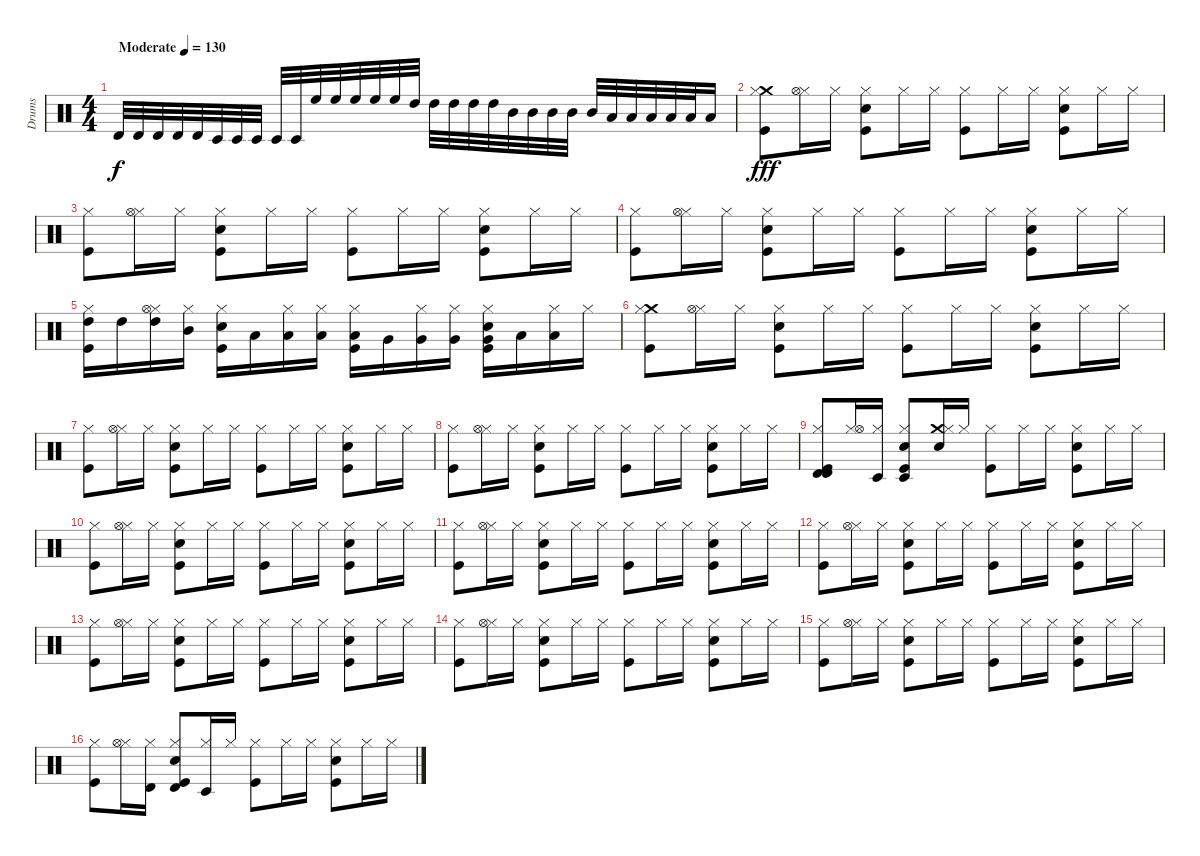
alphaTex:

\track ("Drums" "Drums") {instrument percussion}
\staff {score}
\articulation defaults
\ts (4 4)
\tempo (130 "Moderate")
\clef neutral
\ks c "Timbale high (hit)".32{dy f} "Timbale high (hit)".32 "Timbale high (hit)".32 "Timbale high (hit)".32 "Timbale high (hit)".32 "Timbale low (hit)".32 "Timbale low (hit)".32 "Timbale low (hit)".32 "Timbale low (hit)".32 "Timbale low (hit)".32 "High Floor Tom (hit)".32 "High Floor Tom (hit)".32 "High Floor Tom (hit)".32 "High Floor Tom (hit)".32 "High Floor Tom (hit)".32 "High Tom (hit)".32 "High Tom (hit)".32 "High Tom (hit)".32 "High Tom (hit)".32 "High Tom (hit)".32 "Mid Tom (hit)".32 "Mid Tom (hit)".32 "Mid Tom (hit)".32 "Mid Tom (hit)".32 "Mid Tom (hit)".32 "Low Tom (hit)".32 "Low Tom (hit)".32 "Low Tom (hit)".32 "Low Tom (hit)".32 "Low Tom (hit)".32 "Low Tom (hit)".16
|
("Crash medium (hit)" "Kick (hit)" "Hi-Hat (closed)").8{dy fff} ("Hi-Hat (closed)" "Hi-Hat (open)").16 "Hi-Hat (closed)".16 ("Kick (hit)" "Electric Snare (hit)" "Hi-Hat (closed)").8 "Hi-Hat (closed)".16 "Hi-Hat (closed)".16 ("Kick (hit)" "Hi-Hat (closed)").8 "Hi-Hat (closed)".16 "Hi-Hat (closed)".16 ("Kick (hit)" "Electric Snare (hit)" "Hi-Hat (closed)").8 "Hi-Hat (closed)".16 "Hi-Hat (closed)".16 |
("Kick (hit)" "Hi-Hat (closed)").8 ("Hi-Hat (closed)" "Hi-Hat (open)").16 "Hi-Hat (closed)".16 ("Kick (hit)" "Electric Snare (hit)" "Hi-Hat (closed)").8 "Hi-Hat (closed)".16 "Hi-Hat (closed)".16 ("Kick (hit)" "Hi-Hat (closed)").8 "Hi-Hat (closed)".16 "Hi-Hat (closed)".16 ("Kick (hit)" "Electric Snare (hit)" "Hi-Hat (closed)").8 "Hi-Hat (closed)".16 "Hi-Hat (closed)".16 |
("Kick (hit)" "Hi-Hat (closed)").8 ("Hi-Hat (closed)" "Hi-Hat (open)").16 "Hi-Hat (closed)".16 ("Kick (hit)" "Electric Snare (hit)" "Hi-Hat (closed)").8 "Hi-Hat (closed)".16 "Hi-Hat (closed)".16 ("Kick (hit)" "Hi-Hat (closed)").8 "Hi-Hat (closed)".16 "Hi-Hat (closed)".16 ("Kick (hit)" "Electric Snare (hit)" "Hi-Hat (closed)").8 "Hi-Hat (closed)".16 "Hi-Hat (closed)".16 |
("Kick (hit)" "Hi-Hat (closed)" "High Tom (hit)").16 "High Tom (hit)".16 ("Hi-Hat (closed)" "Hi-Hat (open)" "High Tom (hit)").16 ("Hi-Hat (closed)" "Mid Tom (hit)").16 ("Kick (hit)" "Electric Snare (hit)" "Hi-Hat (closed)").16 "Low Tom (hit)".16 ("Hi-Hat (closed)" "Low Tom (hit)").16 ("Hi-Hat (closed)" "Low Tom (hit)").16 ("Kick (hit)" "Hi-Hat (closed)" "Low Tom (hit)").16 "Very Low Tom (hit)".16 ("Hi-Hat (closed)" "Very Low Tom (hit)").16 ("Hi-Hat (closed)" "Very Low Tom (hit)").16 ("Kick (hit)" "Electric Snare (hit)" "Hi-Hat (closed)" "Very Low Tom (hit)").16 "Low Floor Tom (hit)".16 ("Low Floor Tom (hit)" "Hi-Hat (closed)").16 "Hi-Hat (closed)".16 |
("Crash medium (hit)" "Kick (hit)" "Hi-Hat (closed)").8 ("Hi-Hat (closed)" "Hi-Hat (open)").16 "Hi-Hat (closed)".16 ("Kick (hit)" "Electric Snare (hit)" "Hi-Hat (closed)").8 "Hi-Hat (closed)".16 "Hi-Hat (closed)".16 ("Kick (hit)" "Hi-Hat (closed)").8 "Hi-Hat (closed)".16 "Hi-Hat (closed)".16 ("Kick (hit)" "Electric Snare (hit)" "Hi-Hat (closed)").8 "Hi-Hat (closed)".16 "Hi-Hat (closed)".16 |
("Kick (hit)" "Hi-Hat (closed)").8 ("Hi-Hat (closed)" "Hi-Hat (open)").16 "Hi-Hat (closed)".16 ("Kick (hit)" "Electric Snare (hit)" "Hi-Hat (closed)").8 "Hi-Hat (closed)".16 "Hi-Hat (closed)".16 ("Kick (hit)" "Hi-Hat (closed)").8 "Hi-Hat (closed)".16 "Hi-Hat (closed)".16 ("Kick (hit)" "Electric Snare (hit)" "Hi-Hat (closed)").8 "Hi-Hat (closed)".16 "Hi-Hat (closed)".16 |
("Kick (hit)" "Hi-Hat (closed)").8 ("Hi-Hat (closed)" "Hi-Hat (open)").16 "Hi-Hat (closed)".16 ("Kick (hit)" "Electric Snare (hit)" "Hi-Hat (closed)").8 "Hi-Hat (closed)".16 "Hi-Hat (closed)".16 ("Kick (hit)" "Hi-Hat (closed)").8 "Hi-Hat (closed)".16 "Hi-Hat (closed)".16 ("Kick (hit)" "Electric Snare (hit)" "Hi-Hat (closed)").8 "Hi-Hat (closed)".16 "Hi-Hat (closed)".16 |
("Kick (hit)" "Hi-Hat (closed)" "Timbale high (hit)" "Timbale high (hit)").8 ("Hi-Hat (closed)" "Hi-Hat (open)").16 ("Hi-Hat (closed)" "Timbale low (hit)").16 ("Kick (hit)" "Electric Snare (hit)" "Hi-Hat (closed)" "Timbale low (hit)").8 ("Crash medium (hit)" "Electric Snare (hit)" "Hi-Hat (closed)").16 "Hi-Hat (closed)".16 ("Kick (hit)" "Hi-Hat (closed)").8 "Hi-Hat (closed)".16 "Hi-Hat (closed)".16 ("Kick (hit)" "Electric Snare (hit)" "Hi-Hat (closed)").8 "Hi-Hat (closed)".16 "Hi-Hat (closed)".16 |
("Kick (hit)" "Hi-Hat (closed)").8 ("Hi-Hat (closed)" "Hi-Hat (open)").16 "Hi-Hat (closed)".16 ("Kick (hit)" "Electric Snare (hit)" "Hi-Hat (closed)").8 "Hi-Hat (closed)".16 "Hi-Hat (closed)".16 ("Kick (hit)" "Hi-Hat (closed)").8 "Hi-Hat (closed)".16 "Hi-Hat (closed)".16 ("Kick (hit)" "Electric Snare (hit)" "Hi-Hat (closed)").8 "Hi-Hat (closed)".16 "Hi-Hat (closed)".16 |
("Kick (hit)" "Hi-Hat (closed)").8 ("Hi-Hat (closed)" "Hi-Hat (open)").16 "Hi-Hat (closed)".16 ("Kick (hit)" "Electric Snare (hit)" "Hi-Hat (closed)").8 "Hi-Hat (closed)".16 "Hi-Hat (closed)".16 ("Kick (hit)" "Hi-Hat (closed)").8 "Hi-Hat (closed)".16 "Hi-Hat (closed)".16 ("Kick (hit)" "Electric Snare (hit)" "Hi-Hat (closed)").8 "Hi-Hat (closed)".16 "Hi-Hat (closed)".16 |
("Kick (hit)" "Hi-Hat (closed)").8 ("Hi-Hat (closed)" "Hi-Hat (open)").16 "Hi-Hat (closed)".16 ("Kick (hit)" "Electric Snare (hit)" "Hi-Hat (closed)").8 "Hi-Hat (closed)".16 "Hi-Hat (closed)".16 ("Kick (hit)" "Hi-Hat (closed)").8 "Hi-Hat (closed)".16 "Hi-Hat (closed)".16 ("Kick (hit)" "Electric Snare (hit)" "Hi-Hat (closed)").8 "Hi-Hat (closed)".16 "Hi-Hat (closed)".16 |
("Kick (hit)" "Hi-Hat (closed)").8 ("Hi-Hat (closed)" "Hi-Hat (open)").16 "Hi-Hat (closed)".16 ("Kick (hit)" "Electric Snare (hit)" "Hi-Hat (closed)").8 "Hi-Hat (closed)".16 "Hi-Hat (closed)".16 ("Kick (hit)" "Hi-Hat (closed)").8 "Hi-Hat (closed)".16 "Hi-Hat (closed)".16 ("Kick (hit)" "Electric Snare (hit)" "Hi-Hat (closed)").8 "Hi-Hat (closed)".16 "Hi-Hat (closed)".16 |
("Kick (hit)" "Hi-Hat (closed)").8 ("Hi-Hat (closed)" "Hi-Hat (open)").16 "Hi-Hat (closed)".16 ("Kick (hit)" "Electric Snare (hit)" "Hi-Hat (closed)").8 "Hi-Hat (closed)".16 "Hi-Hat (closed)".16 ("Kick (hit)" "Hi-Hat (closed)").8 "Hi-Hat (closed)".16 "Hi-Hat (closed)".16 ("Kick (hit)" "Electric Snare (hit)" "Hi-Hat (closed)").8 "Hi-Hat (closed)".16 "Hi-Hat (closed)".16 |
("Kick (hit)" "Hi-Hat (closed)").8 ("Hi-Hat (closed)" "Hi-Hat (open)").16 "Hi-Hat (closed)".16 ("Kick (hit)" "Electric Snare (hit)" "Hi-Hat (closed)").8 "Hi-Hat (closed)".16 "Hi-Hat (closed)".16 ("Kick (hit)" "Hi-Hat (closed)").8 "Hi-Hat (closed)".16 "Hi-Hat (closed)".16 ("Kick (hit)" "Electric Snare (hit)" "Hi-Hat (closed)").8 "Hi-Hat (closed)".16 "Hi-Hat (closed)".16 |
("Kick (hit)" "Hi-Hat (closed)").8 ("Hi-Hat (closed)" "Hi-Hat (open)").16 ("Hi-Hat (closed)" "Timbale high (hit)").16 ("Kick (hit)" "Electric Snare (hit)" "Hi-Hat (closed)" "Timbale high (hit)").8 ("Hi-Hat (closed)" "Timbale low (hit)").16 "Hi-Hat (closed)".16 ("Kick (hit)" "Hi-Hat (closed)").8 "Hi-Hat (closed)".16 "Hi-Hat (closed)".16 ("Kick (hit)" "Electric Snare (hit)" "Hi-Hat (closed)").8 "Hi-Hat (closed)".16 "Hi-Hat (closed)".16
